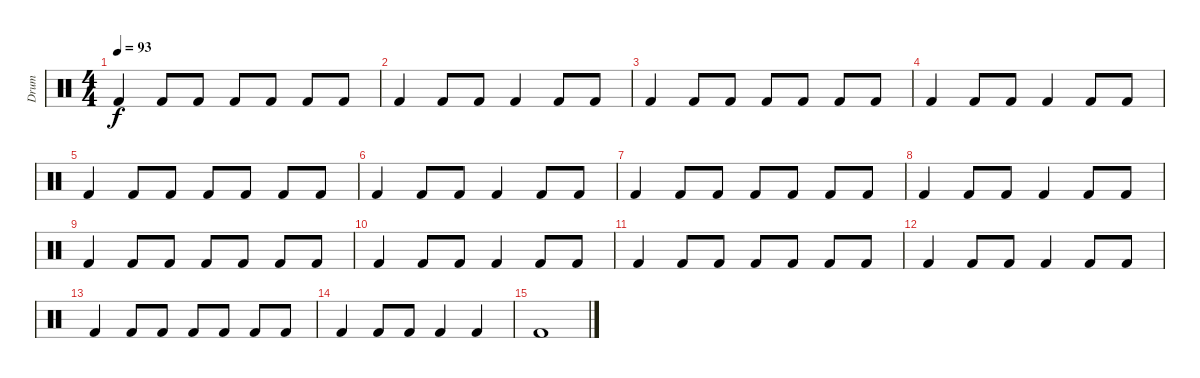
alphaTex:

\track ("Drum" "Drum") {instrument percussion}
\staff {score}
\articulation defaults
\ts (4 4)
\tempo 93
\clef neutral
\ks c "Kick (hit) 2".4{dy f} "Kick (hit) 2".8 "Kick (hit) 2".8 "Kick (hit) 2".8 "Kick (hit) 2".8 "Kick (hit) 2".8 "Kick (hit) 2".8
|
"Kick (hit) 2".4 "Kick (hit) 2".8 "Kick (hit) 2".8 "Kick (hit) 2".4 "Kick (hit) 2".8 "Kick (hit) 2".8 |
"Kick (hit) 2".4 "Kick (hit) 2".8 "Kick (hit) 2".8 "Kick (hit) 2".8 "Kick (hit) 2".8 "Kick (hit) 2".8 "Kick (hit) 2".8 |
"Kick (hit) 2".4 "Kick (hit) 2".8 "Kick (hit) 2".8 "Kick (hit) 2".4 "Kick (hit) 2".8 "Kick (hit) 2".8 |
"Kick (hit) 2".4 "Kick (hit) 2".8 "Kick (hit) 2".8 "Kick (hit) 2".8 "Kick (hit) 2".8 "Kick (hit) 2".8 "Kick (hit) 2".8 |
"Kick (hit) 2".4 "Kick (hit) 2".8 "Kick (hit) 2".8 "Kick (hit) 2".4 "Kick (hit) 2".8 "Kick (hit) 2".8 |
"Kick (hit) 2".4 "Kick (hit) 2".8 "Kick (hit) 2".8 "Kick (hit) 2".8 "Kick (hit) 2".8 "Kick (hit) 2".8 "Kick (hit) 2".8 |
"Kick (hit) 2".4 "Kick (hit) 2".8 "Kick (hit) 2".8 "Kick (hit) 2".4 "Kick (hit) 2".8 "Kick (hit) 2".8 |
"Kick (hit) 2".4 "Kick (hit) 2".8 "Kick (hit) 2".8 "Kick (hit) 2".8 "Kick (hit) 2".8 "Kick (hit) 2".8 "Kick (hit) 2".8 |
"Kick (hit) 2".4 "Kick (hit) 2".8 "Kick (hit) 2".8 "Kick (hit) 2".4 "Kick (hit) 2".8 "Kick (hit) 2".8 |
"Kick (hit) 2".4 "Kick (hit) 2".8 "Kick (hit) 2".8 "Kick (hit) 2".8 "Kick (hit) 2".8 "Kick (hit) 2".8 "Kick (hit) 2".8 |
"Kick (hit) 2".4 "Kick (hit) 2".8 "Kick (hit) 2".8 "Kick (hit) 2".4 "Kick (hit) 2".8 "Kick (hit) 2".8 |
"Kick (hit) 2".4 "Kick (hit) 2".8 "Kick (hit) 2".8 "Kick (hit) 2".8 "Kick (hit) 2".8 "Kick (hit) 2".8 "Kick (hit) 2".8 |
"Kick (hit) 2".4 "Kick (hit) 2".8 "Kick (hit) 2".8 "Kick (hit) 2".4 "Kick (hit) 2".4 |
"Kick (hit) 2".1
